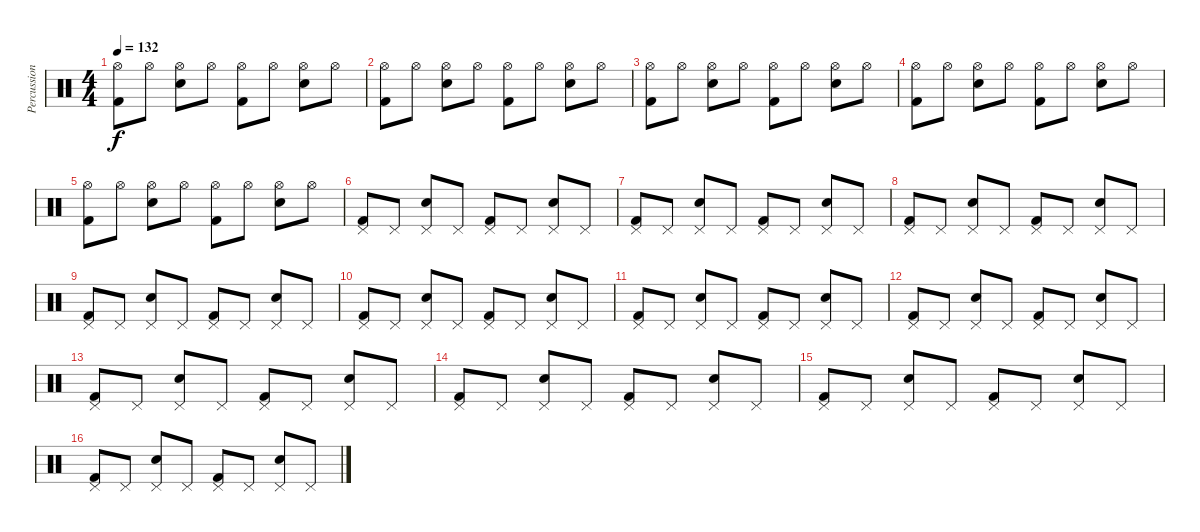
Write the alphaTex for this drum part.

\track ("Percussion" "Percussion") {instrument percussion}
\staff {score}
\articulation defaults
\ts (4 4)
\tempo 132
\clef neutral
\ks c
("Hi-Hat (open)" "Kick (hit) 2").8{dy f} "Hi-Hat (open)".8 ("Hi-Hat (open)" "Snare (hit) 2").8 "Hi-Hat (open)".8 ("Hi-Hat (open)" "Kick (hit) 2").8 "Hi-Hat (open)".8 ("Hi-Hat (open)" "Snare (hit) 2").8 "Hi-Hat (open)".8 |
("Hi-Hat (open)" "Kick (hit) 2").8 "Hi-Hat (open)".8 ("Hi-Hat (open)" "Snare (hit) 2").8 "Hi-Hat (open)".8 ("Hi-Hat (open)" "Kick (hit) 2").8 "Hi-Hat (open)".8 ("Hi-Hat (open)" "Snare (hit) 2").8 "Hi-Hat (open)".8 |
("Hi-Hat (open)" "Kick (hit) 2").8 "Hi-Hat (open)".8 ("Hi-Hat (open)" "Snare (hit) 2").8 "Hi-Hat (open)".8 ("Hi-Hat (open)" "Kick (hit) 2").8 "Hi-Hat (open)".8 ("Hi-Hat (open)" "Snare (hit) 2").8 "Hi-Hat (open)".8 |
("Hi-Hat (open)" "Kick (hit) 2").8 "Hi-Hat (open)".8 ("Hi-Hat (open)" "Snare (hit) 2").8 "Hi-Hat (open)".8 ("Hi-Hat (open)" "Kick (hit) 2").8 "Hi-Hat (open)".8 ("Hi-Hat (open)" "Snare (hit) 2").8 "Hi-Hat (open)".8 |
("Hi-Hat (open)" "Kick (hit) 2").8 "Hi-Hat (open)".8 ("Hi-Hat (open)" "Snare (hit) 2").8 "Hi-Hat (open)".8 ("Hi-Hat (open)" "Kick (hit) 2").8 "Hi-Hat (open)".8 ("Hi-Hat (open)" "Snare (hit) 2").8 "Hi-Hat (open)".8 |
("Pedal Hi-Hat (hit)" "Kick (hit) 2").8 "Pedal Hi-Hat (hit)".8 ("Pedal Hi-Hat (hit)" "Snare (hit) 2").8 "Pedal Hi-Hat (hit)".8 ("Pedal Hi-Hat (hit)" "Kick (hit) 2").8 "Pedal Hi-Hat (hit)".8 ("Pedal Hi-Hat (hit)" "Snare (hit) 2").8 "Pedal Hi-Hat (hit)".8 |
("Pedal Hi-Hat (hit)" "Kick (hit) 2").8 "Pedal Hi-Hat (hit)".8 ("Pedal Hi-Hat (hit)" "Snare (hit) 2").8 "Pedal Hi-Hat (hit)".8 ("Pedal Hi-Hat (hit)" "Kick (hit) 2").8 "Pedal Hi-Hat (hit)".8 ("Pedal Hi-Hat (hit)" "Snare (hit) 2").8 "Pedal Hi-Hat (hit)".8 |
("Pedal Hi-Hat (hit)" "Kick (hit) 2").8 "Pedal Hi-Hat (hit)".8 ("Pedal Hi-Hat (hit)" "Snare (hit) 2").8 "Pedal Hi-Hat (hit)".8 ("Pedal Hi-Hat (hit)" "Kick (hit) 2").8 "Pedal Hi-Hat (hit)".8 ("Pedal Hi-Hat (hit)" "Snare (hit) 2").8 "Pedal Hi-Hat (hit)".8 |
("Pedal Hi-Hat (hit)" "Kick (hit) 2").8 "Pedal Hi-Hat (hit)".8 ("Pedal Hi-Hat (hit)" "Snare (hit) 2").8 "Pedal Hi-Hat (hit)".8 ("Pedal Hi-Hat (hit)" "Kick (hit) 2").8 "Pedal Hi-Hat (hit)".8 ("Pedal Hi-Hat (hit)" "Snare (hit) 2").8 "Pedal Hi-Hat (hit)".8 |
("Pedal Hi-Hat (hit)" "Kick (hit) 2").8 "Pedal Hi-Hat (hit)".8 ("Pedal Hi-Hat (hit)" "Snare (hit) 2").8 "Pedal Hi-Hat (hit)".8 ("Pedal Hi-Hat (hit)" "Kick (hit) 2").8 "Pedal Hi-Hat (hit)".8 ("Pedal Hi-Hat (hit)" "Snare (hit) 2").8 "Pedal Hi-Hat (hit)".8 |
("Pedal Hi-Hat (hit)" "Kick (hit) 2").8 "Pedal Hi-Hat (hit)".8 ("Pedal Hi-Hat (hit)" "Snare (hit) 2").8 "Pedal Hi-Hat (hit)".8 ("Pedal Hi-Hat (hit)" "Kick (hit) 2").8 "Pedal Hi-Hat (hit)".8 ("Pedal Hi-Hat (hit)" "Snare (hit) 2").8 "Pedal Hi-Hat (hit)".8 |
("Pedal Hi-Hat (hit)" "Kick (hit) 2").8 "Pedal Hi-Hat (hit)".8 ("Pedal Hi-Hat (hit)" "Snare (hit) 2").8 "Pedal Hi-Hat (hit)".8 ("Pedal Hi-Hat (hit)" "Kick (hit) 2").8 "Pedal Hi-Hat (hit)".8 ("Pedal Hi-Hat (hit)" "Snare (hit) 2").8 "Pedal Hi-Hat (hit)".8 |
("Pedal Hi-Hat (hit)" "Kick (hit) 2").8 "Pedal Hi-Hat (hit)".8 ("Pedal Hi-Hat (hit)" "Snare (hit) 2").8 "Pedal Hi-Hat (hit)".8 ("Pedal Hi-Hat (hit)" "Kick (hit) 2").8 "Pedal Hi-Hat (hit)".8 ("Pedal Hi-Hat (hit)" "Snare (hit) 2").8 "Pedal Hi-Hat (hit)".8 |
("Pedal Hi-Hat (hit)" "Kick (hit) 2").8 "Pedal Hi-Hat (hit)".8 ("Pedal Hi-Hat (hit)" "Snare (hit) 2").8 "Pedal Hi-Hat (hit)".8 ("Pedal Hi-Hat (hit)" "Kick (hit) 2").8 "Pedal Hi-Hat (hit)".8 ("Pedal Hi-Hat (hit)" "Snare (hit) 2").8 "Pedal Hi-Hat (hit)".8 |
("Pedal Hi-Hat (hit)" "Kick (hit) 2").8 "Pedal Hi-Hat (hit)".8 ("Pedal Hi-Hat (hit)" "Snare (hit) 2").8 "Pedal Hi-Hat (hit)".8 ("Pedal Hi-Hat (hit)" "Kick (hit) 2").8 "Pedal Hi-Hat (hit)".8 ("Pedal Hi-Hat (hit)" "Snare (hit) 2").8 "Pedal Hi-Hat (hit)".8 |
("Pedal Hi-Hat (hit)" "Kick (hit) 2").8 "Pedal Hi-Hat (hit)".8 ("Pedal Hi-Hat (hit)" "Snare (hit) 2").8 "Pedal Hi-Hat (hit)".8 ("Pedal Hi-Hat (hit)" "Kick (hit) 2").8 "Pedal Hi-Hat (hit)".8 ("Pedal Hi-Hat (hit)" "Snare (hit) 2").8 "Pedal Hi-Hat (hit)".8
